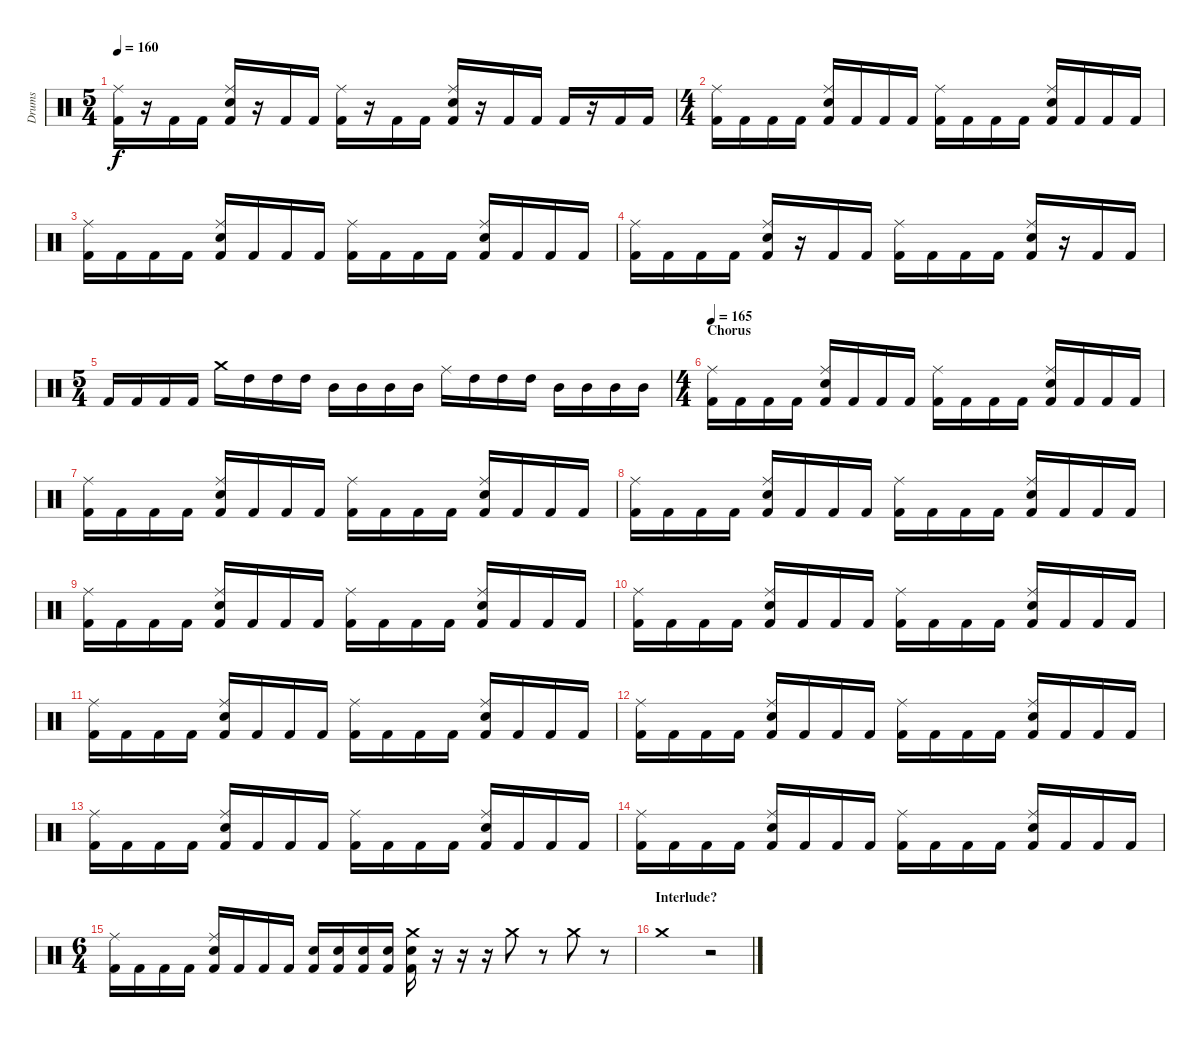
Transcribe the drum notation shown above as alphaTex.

\track ("Drums" "Drums") {instrument percussion}
\staff {score}
\articulation defaults
\ts (5 4)
\tempo 160
\clef neutral
\ks c
("Kick (hit) 2" "Ride (middle)").16{dy f} r.16 "Kick (hit) 2".16 "Kick (hit) 2".16 ("Kick (hit) 2" "Electric Snare (hit)" "Ride (middle)").16 r.16 "Kick (hit) 2".16 "Kick (hit) 2".16 ("Kick (hit) 2" "Ride (middle)").16 r.16 "Kick (hit) 2".16 "Kick (hit) 2".16 ("Kick (hit) 2" "Electric Snare (hit)" "Ride (middle)").16 r.16 "Kick (hit) 2".16 "Kick (hit) 2".16 "Kick (hit) 2".16 r.16 "Kick (hit) 2".16 "Kick (hit) 2".16 |
\ts (4 4)
("Kick (hit) 2" "Ride (middle)").16 "Kick (hit) 2".16 "Kick (hit) 2".16 "Kick (hit) 2".16 ("Kick (hit) 2" "Electric Snare (hit)" "Ride (middle)").16 "Kick (hit) 2".16 "Kick (hit) 2".16 "Kick (hit) 2".16 ("Kick (hit) 2" "Ride (middle)").16 "Kick (hit) 2".16 "Kick (hit) 2".16 "Kick (hit) 2".16 ("Kick (hit) 2" "Electric Snare (hit)" "Ride (middle)").16 "Kick (hit) 2".16 "Kick (hit) 2".16 "Kick (hit) 2".16 |
("Kick (hit) 2" "Ride (middle)").16 "Kick (hit) 2".16 "Kick (hit) 2".16 "Kick (hit) 2".16 ("Kick (hit) 2" "Electric Snare (hit)" "Ride (middle)").16 "Kick (hit) 2".16 "Kick (hit) 2".16 "Kick (hit) 2".16 ("Kick (hit) 2" "Ride (middle)").16 "Kick (hit) 2".16 "Kick (hit) 2".16 "Kick (hit) 2".16 ("Kick (hit) 2" "Electric Snare (hit)" "Ride (middle)").16 "Kick (hit) 2".16 "Kick (hit) 2".16 "Kick (hit) 2".16 |
("Kick (hit) 2" "Ride (middle)").16 "Kick (hit) 2".16 "Kick (hit) 2".16 "Kick (hit) 2".16 ("Kick (hit) 2" "Electric Snare (hit)" "Ride (middle)").16 r.16 "Kick (hit) 2".16 "Kick (hit) 2".16 ("Kick (hit) 2" "Ride (middle)").16 "Kick (hit) 2".16 "Kick (hit) 2".16 "Kick (hit) 2".16 ("Kick (hit) 2" "Electric Snare (hit)" "Ride (middle)").16 r.16 "Kick (hit) 2".16 "Kick (hit) 2".16 |
\ts (5 4)
"Kick (hit) 2".16 "Kick (hit) 2".16 "Kick (hit) 2".16 "Kick (hit) 2".16 "Crash medium (hit)".16 "High Tom (hit)".16 "High Tom (hit)".16 "High Tom (hit)".16 "Mid Tom (hit)".16 "Mid Tom (hit)".16 "Mid Tom (hit)".16 "Mid Tom (hit)".16 "Ride (middle)".16 "High Tom (hit)".16 "High Tom (hit)".16 "High Tom (hit)".16 "Mid Tom (hit)".16 "Mid Tom (hit)".16 "Mid Tom (hit)".16 "Mid Tom (hit)".16 |
\ts (4 4)
\section ("" "Chorus")
\tempo 165
("Kick (hit) 2" "Ride (middle)").16 "Kick (hit) 2".16 "Kick (hit) 2".16 "Kick (hit) 2".16 ("Kick (hit) 2" "Electric Snare (hit)" "Ride (middle)").16 "Kick (hit) 2".16 "Kick (hit) 2".16 "Kick (hit) 2".16 ("Kick (hit) 2" "Ride (middle)").16 "Kick (hit) 2".16 "Kick (hit) 2".16 "Kick (hit) 2".16 ("Kick (hit) 2" "Electric Snare (hit)" "Ride (middle)").16 "Kick (hit) 2".16 "Kick (hit) 2".16 "Kick (hit) 2".16 |
("Kick (hit) 2" "Ride (middle)").16 "Kick (hit) 2".16 "Kick (hit) 2".16 "Kick (hit) 2".16 ("Kick (hit) 2" "Electric Snare (hit)" "Ride (middle)").16 "Kick (hit) 2".16 "Kick (hit) 2".16 "Kick (hit) 2".16 ("Kick (hit) 2" "Ride (middle)").16 "Kick (hit) 2".16 "Kick (hit) 2".16 "Kick (hit) 2".16 ("Kick (hit) 2" "Electric Snare (hit)" "Ride (middle)").16 "Kick (hit) 2".16 "Kick (hit) 2".16 "Kick (hit) 2".16 |
("Kick (hit) 2" "Ride (middle)").16 "Kick (hit) 2".16 "Kick (hit) 2".16 "Kick (hit) 2".16 ("Kick (hit) 2" "Electric Snare (hit)" "Ride (middle)").16 "Kick (hit) 2".16 "Kick (hit) 2".16 "Kick (hit) 2".16 ("Kick (hit) 2" "Ride (middle)").16 "Kick (hit) 2".16 "Kick (hit) 2".16 "Kick (hit) 2".16 ("Kick (hit) 2" "Electric Snare (hit)" "Ride (middle)").16 "Kick (hit) 2".16 "Kick (hit) 2".16 "Kick (hit) 2".16 |
("Kick (hit) 2" "Ride (middle)").16 "Kick (hit) 2".16 "Kick (hit) 2".16 "Kick (hit) 2".16 ("Kick (hit) 2" "Electric Snare (hit)" "Ride (middle)").16 "Kick (hit) 2".16 "Kick (hit) 2".16 "Kick (hit) 2".16 ("Kick (hit) 2" "Ride (middle)").16 "Kick (hit) 2".16 "Kick (hit) 2".16 "Kick (hit) 2".16 ("Kick (hit) 2" "Electric Snare (hit)" "Ride (middle)").16 "Kick (hit) 2".16 "Kick (hit) 2".16 "Kick (hit) 2".16 |
("Kick (hit) 2" "Ride (middle)").16 "Kick (hit) 2".16 "Kick (hit) 2".16 "Kick (hit) 2".16 ("Kick (hit) 2" "Electric Snare (hit)" "Ride (middle)").16 "Kick (hit) 2".16 "Kick (hit) 2".16 "Kick (hit) 2".16 ("Kick (hit) 2" "Ride (middle)").16 "Kick (hit) 2".16 "Kick (hit) 2".16 "Kick (hit) 2".16 ("Kick (hit) 2" "Electric Snare (hit)" "Ride (middle)").16 "Kick (hit) 2".16 "Kick (hit) 2".16 "Kick (hit) 2".16 |
("Kick (hit) 2" "Ride (middle)").16 "Kick (hit) 2".16 "Kick (hit) 2".16 "Kick (hit) 2".16 ("Kick (hit) 2" "Electric Snare (hit)" "Ride (middle)").16 "Kick (hit) 2".16 "Kick (hit) 2".16 "Kick (hit) 2".16 ("Kick (hit) 2" "Ride (middle)").16 "Kick (hit) 2".16 "Kick (hit) 2".16 "Kick (hit) 2".16 ("Kick (hit) 2" "Electric Snare (hit)" "Ride (middle)").16 "Kick (hit) 2".16 "Kick (hit) 2".16 "Kick (hit) 2".16 |
("Kick (hit) 2" "Ride (middle)").16 "Kick (hit) 2".16 "Kick (hit) 2".16 "Kick (hit) 2".16 ("Kick (hit) 2" "Electric Snare (hit)" "Ride (middle)").16 "Kick (hit) 2".16 "Kick (hit) 2".16 "Kick (hit) 2".16 ("Kick (hit) 2" "Ride (middle)").16 "Kick (hit) 2".16 "Kick (hit) 2".16 "Kick (hit) 2".16 ("Kick (hit) 2" "Electric Snare (hit)" "Ride (middle)").16 "Kick (hit) 2".16 "Kick (hit) 2".16 "Kick (hit) 2".16 |
("Kick (hit) 2" "Ride (middle)").16 "Kick (hit) 2".16 "Kick (hit) 2".16 "Kick (hit) 2".16 ("Kick (hit) 2" "Electric Snare (hit)" "Ride (middle)").16 "Kick (hit) 2".16 "Kick (hit) 2".16 "Kick (hit) 2".16 ("Kick (hit) 2" "Ride (middle)").16 "Kick (hit) 2".16 "Kick (hit) 2".16 "Kick (hit) 2".16 ("Kick (hit) 2" "Electric Snare (hit)" "Ride (middle)").16 "Kick (hit) 2".16 "Kick (hit) 2".16 "Kick (hit) 2".16 |
("Kick (hit) 2" "Ride (middle)").16 "Kick (hit) 2".16 "Kick (hit) 2".16 "Kick (hit) 2".16 ("Kick (hit) 2" "Electric Snare (hit)" "Ride (middle)").16 "Kick (hit) 2".16 "Kick (hit) 2".16 "Kick (hit) 2".16 ("Kick (hit) 2" "Ride (middle)").16 "Kick (hit) 2".16 "Kick (hit) 2".16 "Kick (hit) 2".16 ("Kick (hit) 2" "Electric Snare (hit)" "Ride (middle)").16 "Kick (hit) 2".16 "Kick (hit) 2".16 "Kick (hit) 2".16 |
\ts (6 4)
("Kick (hit) 2" "Ride (middle)").16 "Kick (hit) 2".16 "Kick (hit) 2".16 "Kick (hit) 2".16 ("Kick (hit) 2" "Electric Snare (hit)" "Ride (middle)").16 "Kick (hit) 2".16 "Kick (hit) 2".16 "Kick (hit) 2".16 ("Kick (hit) 2" "Electric Snare (hit)").16 ("Kick (hit) 2" "Electric Snare (hit)").16 ("Kick (hit) 2" "Electric Snare (hit)").16 ("Kick (hit) 2" "Electric Snare (hit)").16 ("Kick (hit) 2" "Electric Snare (hit)" "Crash medium (hit)").16 r.16 r.16 r.16 "Crash medium (hit)".8 r.8 "Crash medium (hit)".8 r.8 |
\section ("" "Interlude?")
"Crash medium (hit)".1 r.2
